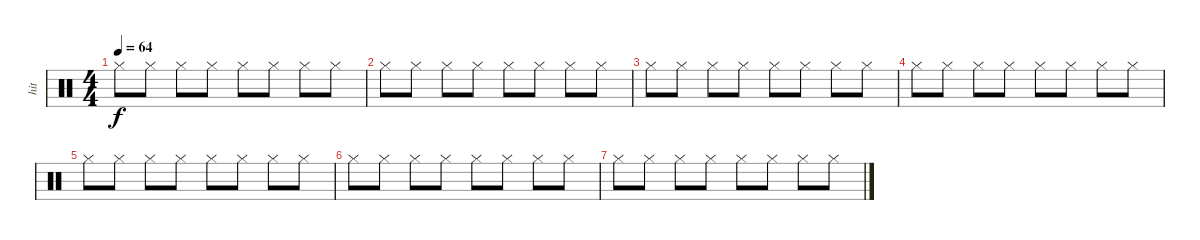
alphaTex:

\track ("hit" "hit") {instrument percussion}
\staff {score}
\articulation defaults
\ts (4 4)
\tempo 64
\clef neutral
\ks c "Hi-Hat (closed)".8{dy f} "Hi-Hat (closed)".8 "Hi-Hat (closed)".8 "Hi-Hat (closed)".8 "Hi-Hat (closed)".8 "Hi-Hat (closed)".8 "Hi-Hat (closed)".8 "Hi-Hat (closed)".8
|
"Hi-Hat (closed)".8 "Hi-Hat (closed)".8 "Hi-Hat (closed)".8 "Hi-Hat (closed)".8 "Hi-Hat (closed)".8 "Hi-Hat (closed)".8 "Hi-Hat (closed)".8 "Hi-Hat (closed)".8 |
"Hi-Hat (closed)".8 "Hi-Hat (closed)".8 "Hi-Hat (closed)".8 "Hi-Hat (closed)".8 "Hi-Hat (closed)".8 "Hi-Hat (closed)".8 "Hi-Hat (closed)".8 "Hi-Hat (closed)".8 |
"Hi-Hat (closed)".8 "Hi-Hat (closed)".8 "Hi-Hat (closed)".8 "Hi-Hat (closed)".8 "Hi-Hat (closed)".8 "Hi-Hat (closed)".8 "Hi-Hat (closed)".8 "Hi-Hat (closed)".8 |
"Hi-Hat (closed)".8 "Hi-Hat (closed)".8 "Hi-Hat (closed)".8 "Hi-Hat (closed)".8 "Hi-Hat (closed)".8 "Hi-Hat (closed)".8 "Hi-Hat (closed)".8 "Hi-Hat (closed)".8 |
"Hi-Hat (closed)".8 "Hi-Hat (closed)".8 "Hi-Hat (closed)".8 "Hi-Hat (closed)".8 "Hi-Hat (closed)".8 "Hi-Hat (closed)".8 "Hi-Hat (closed)".8 "Hi-Hat (closed)".8 |
"Hi-Hat (closed)".8 "Hi-Hat (closed)".8 "Hi-Hat (closed)".8 "Hi-Hat (closed)".8 "Hi-Hat (closed)".8 "Hi-Hat (closed)".8 "Hi-Hat (closed)".8 "Hi-Hat (closed)".8
